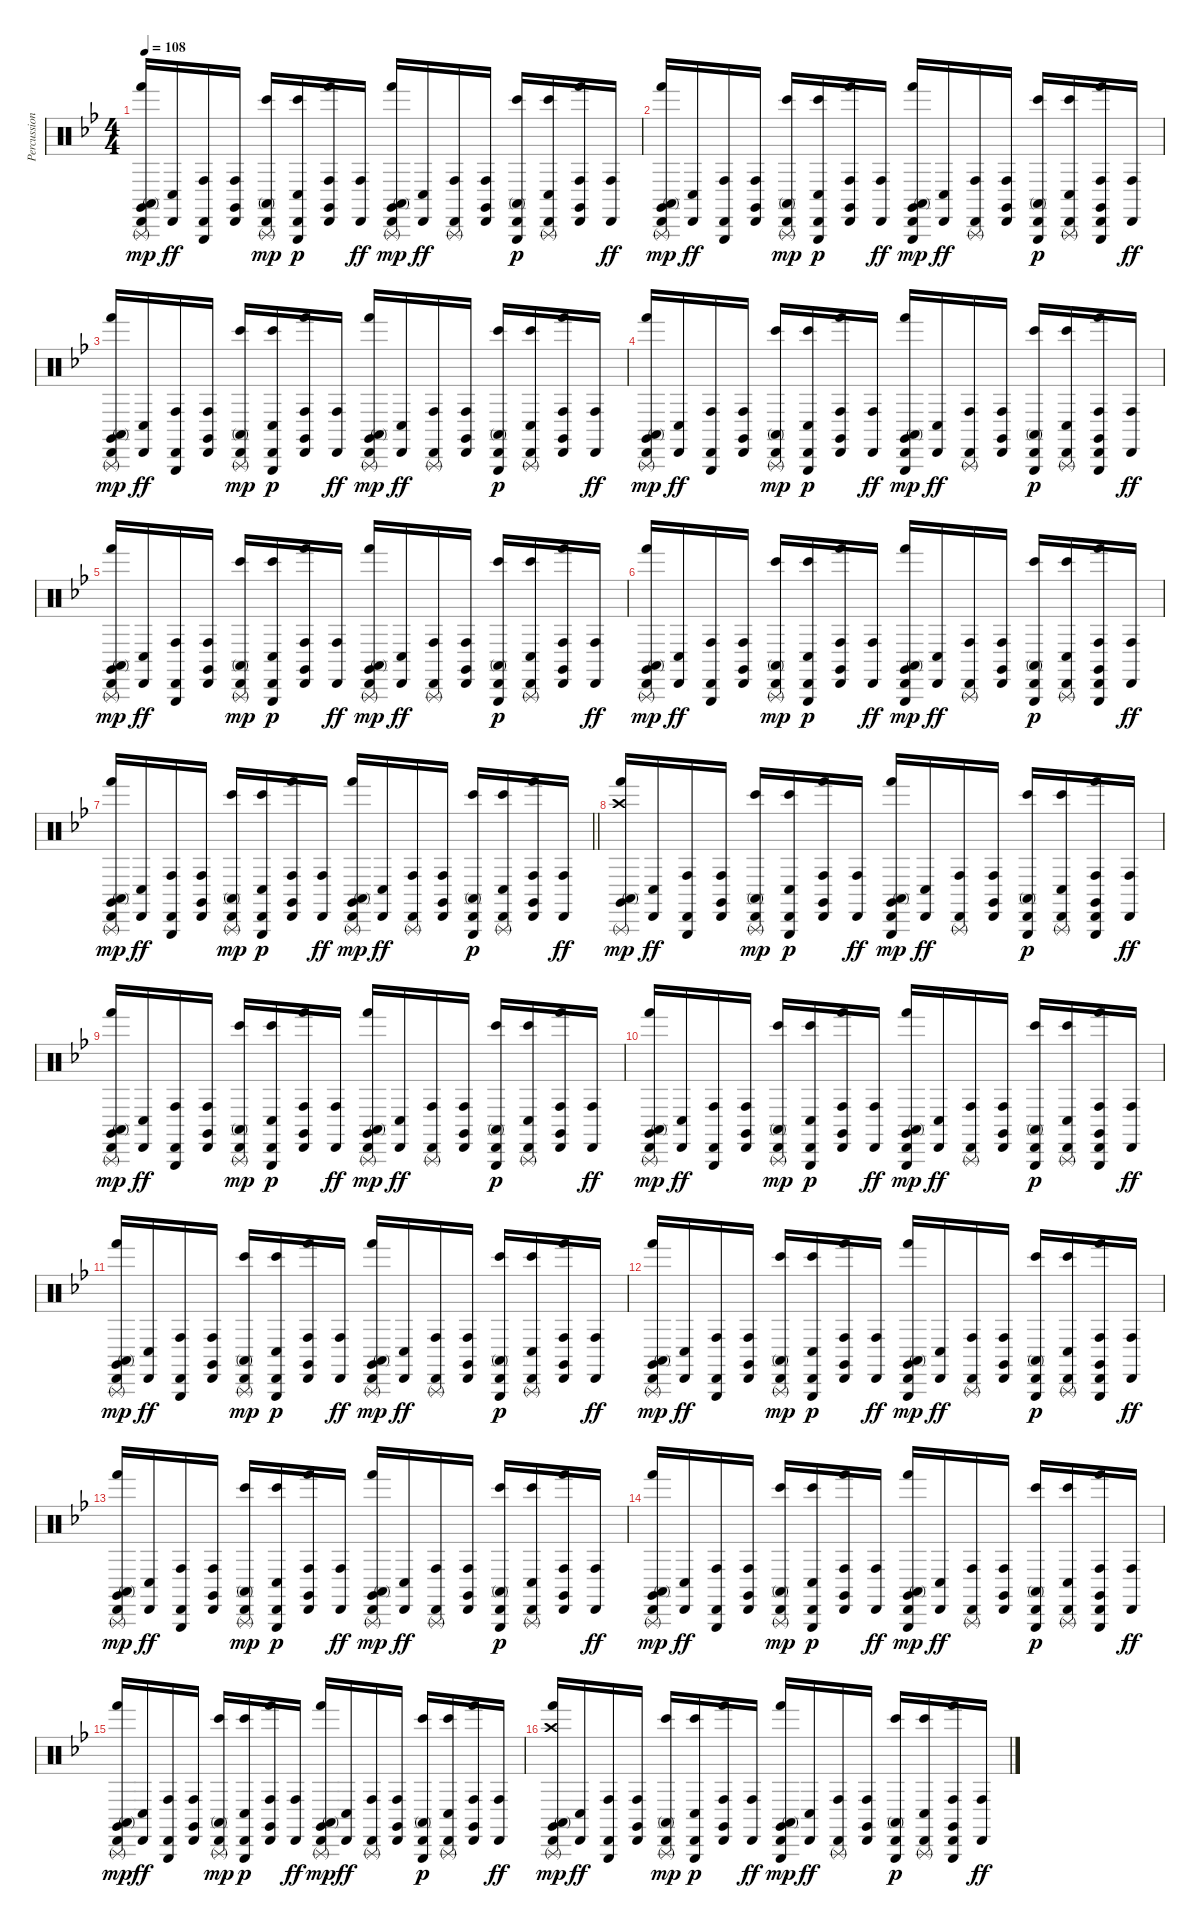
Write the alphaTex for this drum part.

\track ("Percussion" "Percussion") {instrument percussion}
\staff {score}
\articulation defaults
\ts (4 4)
\tempo 108
\clef neutral
\ks gminor
("Cabasa (hit)" "Triangle (rnute)" "Claves (hit)" "Conga high (mute)" "Hand (hit)").16{dy mp} ("Cabasa (hit)" "Conga low (hit)").16{dy ff} ("Cabasa (hit)" "Triangle (hit)" "Conga high (hit)").16 ("Cabasa (hit)" "Claves (hit)" "Conga high (hit)").16 ("Cabasa (hit)" "Triangle (rnute)" "Conga high (mute)" "Bongo High (hit)").16{dy mp} ("Cabasa (hit)" "Triangle (hit)" "Conga low (hit)" "Bongo High (hit)").16{dy p} ("Cabasa (hit)" "Claves (hit)" "Conga high (hit)" "Hand (hit)").16 ("Cabasa (hit)" "Conga high (hit)").16{dy ff} ("Cabasa (hit)" "Triangle (rnute)" "Claves (hit)" "Conga high (mute)" "Hand (hit)").16{dy mp} ("Cabasa (hit)" "Conga low (hit)").16{dy ff} ("Cabasa (hit)" "Triangle (rnute)" "Conga high (hit)").16 ("Cabasa (hit)" "Claves (hit)" "Conga high (hit)").16 ("Cabasa (hit)" "Triangle (hit)" "Conga high (mute)" "Bongo High (hit)").16{dy p} ("Cabasa (hit)" "Triangle (rnute)" "Conga low (hit)" "Bongo High (hit)").16 ("Cabasa (hit)" "Claves (hit)" "Conga high (hit)" "Hand (hit)").16 ("Cabasa (hit)" "Conga high (hit)").16{dy ff} |
("Cabasa (hit)" "Claves (hit)" "Triangle (rnute)" "Conga high (mute)" "Hand (hit)").16{dy mp} ("Cabasa (hit)" "Conga low (hit)").16{dy ff} ("Cabasa (hit)" "Triangle (hit)" "Conga high (hit)").16 ("Cabasa (hit)" "Claves (hit)" "Conga high (hit)").16 ("Cabasa (hit)" "Triangle (rnute)" "Conga high (mute)" "Bongo High (hit)").16{dy mp} ("Cabasa (hit)" "Triangle (hit)" "Conga low (hit)" "Bongo High (hit)").16{dy p} ("Cabasa (hit)" "Claves (hit)" "Conga high (hit)" "Hand (hit)").16 ("Cabasa (hit)" "Conga high (hit)").16{dy ff} ("Cabasa (hit)" "Claves (hit)" "Triangle (hit)" "Conga high (mute)" "Hand (hit)").16{dy mp} ("Cabasa (hit)" "Conga low (hit)").16{dy ff} ("Cabasa (hit)" "Triangle (rnute)" "Conga high (hit)").16 ("Cabasa (hit)" "Claves (hit)" "Conga high (hit)").16 ("Cabasa (hit)" "Triangle (hit)" "Conga high (mute)" "Bongo High (hit)").16{dy p} ("Cabasa (hit)" "Triangle (rnute)" "Conga low (hit)" "Bongo High (hit)").16 ("Cabasa (hit)" "Claves (hit)" "Triangle (hit)" "Conga high (hit)" "Hand (hit)").16 ("Cabasa (hit)" "Conga high (hit)").16{dy ff} |
("Cabasa (hit)" "Triangle (rnute)" "Claves (hit)" "Conga high (mute)" "Hand (hit)").16{dy mp} ("Cabasa (hit)" "Conga low (hit)").16{dy ff} ("Cabasa (hit)" "Triangle (hit)" "Conga high (hit)").16 ("Cabasa (hit)" "Claves (hit)" "Conga high (hit)").16 ("Cabasa (hit)" "Triangle (rnute)" "Conga high (mute)" "Bongo High (hit)").16{dy mp} ("Cabasa (hit)" "Triangle (hit)" "Conga low (hit)" "Bongo High (hit)").16{dy p} ("Cabasa (hit)" "Claves (hit)" "Conga high (hit)" "Hand (hit)").16 ("Cabasa (hit)" "Conga high (hit)").16{dy ff} ("Cabasa (hit)" "Triangle (rnute)" "Claves (hit)" "Conga high (mute)" "Hand (hit)").16{dy mp} ("Cabasa (hit)" "Conga low (hit)").16{dy ff} ("Cabasa (hit)" "Triangle (rnute)" "Conga high (hit)").16 ("Cabasa (hit)" "Claves (hit)" "Conga high (hit)").16 ("Cabasa (hit)" "Triangle (hit)" "Conga high (mute)" "Bongo High (hit)").16{dy p} ("Cabasa (hit)" "Triangle (rnute)" "Conga low (hit)" "Bongo High (hit)").16 ("Cabasa (hit)" "Claves (hit)" "Conga high (hit)" "Hand (hit)").16 ("Cabasa (hit)" "Conga high (hit)").16{dy ff} |
("Cabasa (hit)" "Claves (hit)" "Triangle (rnute)" "Conga high (mute)" "Hand (hit)").16{dy mp} ("Cabasa (hit)" "Conga low (hit)").16{dy ff} ("Cabasa (hit)" "Triangle (hit)" "Conga high (hit)").16 ("Cabasa (hit)" "Claves (hit)" "Conga high (hit)").16 ("Cabasa (hit)" "Triangle (rnute)" "Conga high (mute)" "Bongo High (hit)").16{dy mp} ("Cabasa (hit)" "Triangle (hit)" "Conga low (hit)" "Bongo High (hit)").16{dy p} ("Cabasa (hit)" "Claves (hit)" "Conga high (hit)" "Hand (hit)").16 ("Cabasa (hit)" "Conga high (hit)").16{dy ff} ("Cabasa (hit)" "Claves (hit)" "Triangle (hit)" "Conga high (mute)" "Hand (hit)").16{dy mp} ("Cabasa (hit)" "Conga low (hit)").16{dy ff} ("Cabasa (hit)" "Triangle (rnute)" "Conga high (hit)").16 ("Cabasa (hit)" "Claves (hit)" "Conga high (hit)").16 ("Cabasa (hit)" "Triangle (hit)" "Conga high (mute)" "Bongo High (hit)").16{dy p} ("Cabasa (hit)" "Triangle (rnute)" "Conga low (hit)" "Bongo High (hit)").16 ("Cabasa (hit)" "Claves (hit)" "Triangle (hit)" "Conga high (hit)" "Hand (hit)").16 ("Cabasa (hit)" "Conga high (hit)").16{dy ff} |
("Cabasa (hit)" "Triangle (rnute)" "Claves (hit)" "Conga high (mute)" "Hand (hit)").16{dy mp} ("Cabasa (hit)" "Conga low (hit)").16{dy ff} ("Cabasa (hit)" "Triangle (hit)" "Conga high (hit)").16 ("Cabasa (hit)" "Claves (hit)" "Conga high (hit)").16 ("Cabasa (hit)" "Triangle (rnute)" "Conga high (mute)" "Bongo High (hit)").16{dy mp} ("Cabasa (hit)" "Triangle (hit)" "Conga low (hit)" "Bongo High (hit)").16{dy p} ("Cabasa (hit)" "Claves (hit)" "Conga high (hit)" "Hand (hit)").16 ("Cabasa (hit)" "Conga high (hit)").16{dy ff} ("Cabasa (hit)" "Triangle (rnute)" "Claves (hit)" "Conga high (mute)" "Hand (hit)").16{dy mp} ("Cabasa (hit)" "Conga low (hit)").16{dy ff} ("Cabasa (hit)" "Triangle (rnute)" "Conga high (hit)").16 ("Cabasa (hit)" "Claves (hit)" "Conga high (hit)").16 ("Cabasa (hit)" "Triangle (hit)" "Conga high (mute)" "Bongo High (hit)").16{dy p} ("Cabasa (hit)" "Triangle (rnute)" "Conga low (hit)" "Bongo High (hit)").16 ("Cabasa (hit)" "Claves (hit)" "Conga high (hit)" "Hand (hit)").16 ("Cabasa (hit)" "Conga high (hit)").16{dy ff} |
("Cabasa (hit)" "Claves (hit)" "Triangle (rnute)" "Conga high (mute)" "Hand (hit)").16{dy mp} ("Cabasa (hit)" "Conga low (hit)").16{dy ff} ("Cabasa (hit)" "Triangle (hit)" "Conga high (hit)").16 ("Cabasa (hit)" "Claves (hit)" "Conga high (hit)").16 ("Cabasa (hit)" "Triangle (rnute)" "Conga high (mute)" "Bongo High (hit)").16{dy mp} ("Cabasa (hit)" "Triangle (hit)" "Conga low (hit)" "Bongo High (hit)").16{dy p} ("Cabasa (hit)" "Claves (hit)" "Conga high (hit)" "Hand (hit)").16 ("Cabasa (hit)" "Conga high (hit)").16{dy ff} ("Cabasa (hit)" "Claves (hit)" "Triangle (hit)" "Conga high (mute)" "Hand (hit)").16{dy mp} ("Cabasa (hit)" "Conga low (hit)").16{dy ff} ("Cabasa (hit)" "Triangle (rnute)" "Conga high (hit)").16 ("Cabasa (hit)" "Claves (hit)" "Conga high (hit)").16 ("Cabasa (hit)" "Triangle (hit)" "Conga high (mute)" "Bongo High (hit)").16{dy p} ("Cabasa (hit)" "Triangle (rnute)" "Conga low (hit)" "Bongo High (hit)").16 ("Cabasa (hit)" "Claves (hit)" "Triangle (hit)" "Conga high (hit)" "Hand (hit)").16 ("Cabasa (hit)" "Conga high (hit)").16{dy ff} |
\barLineRight lightlight
("Cabasa (hit)" "Triangle (rnute)" "Claves (hit)" "Conga high (mute)" "Hand (hit)").16{dy mp} ("Cabasa (hit)" "Conga low (hit)").16{dy ff} ("Cabasa (hit)" "Triangle (hit)" "Conga high (hit)").16 ("Cabasa (hit)" "Claves (hit)" "Conga high (hit)").16 ("Cabasa (hit)" "Triangle (rnute)" "Conga high (mute)" "Bongo High (hit)").16{dy mp} ("Cabasa (hit)" "Triangle (hit)" "Conga low (hit)" "Bongo High (hit)").16{dy p} ("Cabasa (hit)" "Claves (hit)" "Conga high (hit)" "Hand (hit)").16 ("Cabasa (hit)" "Conga high (hit)").16{dy ff} ("Cabasa (hit)" "Triangle (rnute)" "Claves (hit)" "Conga high (mute)" "Hand (hit)").16{dy mp} ("Cabasa (hit)" "Conga low (hit)").16{dy ff} ("Cabasa (hit)" "Triangle (rnute)" "Conga high (hit)").16 ("Cabasa (hit)" "Claves (hit)" "Conga high (hit)").16 ("Cabasa (hit)" "Triangle (hit)" "Conga high (mute)" "Bongo High (hit)").16{dy p} ("Cabasa (hit)" "Triangle (rnute)" "Conga low (hit)" "Bongo High (hit)").16 ("Cabasa (hit)" "Claves (hit)" "Conga high (hit)" "Hand (hit)").16 ("Cabasa (hit)" "Conga high (hit)").16{dy ff} |
\section ("" "")
("Crash high (hit)" "Claves (hit)" "Triangle (rnute)" "Conga high (mute)" "Hand (hit)").16{dy mp} ("Cabasa (hit)" "Conga low (hit)").16{dy ff} ("Cabasa (hit)" "Triangle (hit)" "Conga high (hit)").16 ("Cabasa (hit)" "Claves (hit)" "Conga high (hit)").16 ("Cabasa (hit)" "Triangle (rnute)" "Conga high (mute)" "Bongo High (hit)").16{dy mp} ("Cabasa (hit)" "Triangle (hit)" "Conga low (hit)" "Bongo High (hit)").16{dy p} ("Cabasa (hit)" "Claves (hit)" "Conga high (hit)" "Hand (hit)").16 ("Cabasa (hit)" "Conga high (hit)").16{dy ff} ("Cabasa (hit)" "Claves (hit)" "Triangle (hit)" "Conga high (mute)" "Hand (hit)").16{dy mp} ("Cabasa (hit)" "Conga low (hit)").16{dy ff} ("Cabasa (hit)" "Triangle (rnute)" "Conga high (hit)").16 ("Cabasa (hit)" "Claves (hit)" "Conga high (hit)").16 ("Cabasa (hit)" "Triangle (hit)" "Conga high (mute)" "Bongo High (hit)").16{dy p} ("Cabasa (hit)" "Triangle (rnute)" "Conga low (hit)" "Bongo High (hit)").16 ("Cabasa (hit)" "Claves (hit)" "Triangle (hit)" "Conga high (hit)" "Hand (hit)").16 ("Cabasa (hit)" "Conga high (hit)").16{dy ff} |
("Cabasa (hit)" "Triangle (rnute)" "Claves (hit)" "Conga high (mute)" "Hand (hit)").16{dy mp} ("Cabasa (hit)" "Conga low (hit)").16{dy ff} ("Cabasa (hit)" "Triangle (hit)" "Conga high (hit)").16 ("Cabasa (hit)" "Claves (hit)" "Conga high (hit)").16 ("Cabasa (hit)" "Triangle (rnute)" "Conga high (mute)" "Bongo High (hit)").16{dy mp} ("Cabasa (hit)" "Triangle (hit)" "Conga low (hit)" "Bongo High (hit)").16{dy p} ("Cabasa (hit)" "Claves (hit)" "Conga high (hit)" "Hand (hit)").16 ("Cabasa (hit)" "Conga high (hit)").16{dy ff} ("Cabasa (hit)" "Triangle (rnute)" "Claves (hit)" "Conga high (mute)" "Hand (hit)").16{dy mp} ("Cabasa (hit)" "Conga low (hit)").16{dy ff} ("Cabasa (hit)" "Triangle (rnute)" "Conga high (hit)").16 ("Cabasa (hit)" "Claves (hit)" "Conga high (hit)").16 ("Cabasa (hit)" "Triangle (hit)" "Conga high (mute)" "Bongo High (hit)").16{dy p} ("Cabasa (hit)" "Triangle (rnute)" "Conga low (hit)" "Bongo High (hit)").16 ("Cabasa (hit)" "Claves (hit)" "Conga high (hit)" "Hand (hit)").16 ("Cabasa (hit)" "Conga high (hit)").16{dy ff} |
("Cabasa (hit)" "Claves (hit)" "Triangle (rnute)" "Conga high (mute)" "Hand (hit)").16{dy mp} ("Cabasa (hit)" "Conga low (hit)").16{dy ff} ("Cabasa (hit)" "Triangle (hit)" "Conga high (hit)").16 ("Cabasa (hit)" "Claves (hit)" "Conga high (hit)").16 ("Cabasa (hit)" "Triangle (rnute)" "Conga high (mute)" "Bongo High (hit)").16{dy mp} ("Cabasa (hit)" "Triangle (hit)" "Conga low (hit)" "Bongo High (hit)").16{dy p} ("Cabasa (hit)" "Claves (hit)" "Conga high (hit)" "Hand (hit)").16 ("Cabasa (hit)" "Conga high (hit)").16{dy ff} ("Cabasa (hit)" "Claves (hit)" "Triangle (hit)" "Conga high (mute)" "Hand (hit)").16{dy mp} ("Cabasa (hit)" "Conga low (hit)").16{dy ff} ("Cabasa (hit)" "Triangle (rnute)" "Conga high (hit)").16 ("Cabasa (hit)" "Claves (hit)" "Conga high (hit)").16 ("Cabasa (hit)" "Triangle (hit)" "Conga high (mute)" "Bongo High (hit)").16{dy p} ("Cabasa (hit)" "Triangle (rnute)" "Conga low (hit)" "Bongo High (hit)").16 ("Cabasa (hit)" "Claves (hit)" "Triangle (hit)" "Conga high (hit)" "Hand (hit)").16 ("Cabasa (hit)" "Conga high (hit)").16{dy ff} |
("Cabasa (hit)" "Triangle (rnute)" "Claves (hit)" "Conga high (mute)" "Hand (hit)").16{dy mp} ("Cabasa (hit)" "Conga low (hit)").16{dy ff} ("Cabasa (hit)" "Triangle (hit)" "Conga high (hit)").16 ("Cabasa (hit)" "Claves (hit)" "Conga high (hit)").16 ("Cabasa (hit)" "Triangle (rnute)" "Conga high (mute)" "Bongo High (hit)").16{dy mp} ("Cabasa (hit)" "Triangle (hit)" "Conga low (hit)" "Bongo High (hit)").16{dy p} ("Cabasa (hit)" "Claves (hit)" "Conga high (hit)" "Hand (hit)").16 ("Cabasa (hit)" "Conga high (hit)").16{dy ff} ("Cabasa (hit)" "Triangle (rnute)" "Claves (hit)" "Conga high (mute)" "Hand (hit)").16{dy mp} ("Cabasa (hit)" "Conga low (hit)").16{dy ff} ("Cabasa (hit)" "Triangle (rnute)" "Conga high (hit)").16 ("Cabasa (hit)" "Claves (hit)" "Conga high (hit)").16 ("Cabasa (hit)" "Triangle (hit)" "Conga high (mute)" "Bongo High (hit)").16{dy p} ("Cabasa (hit)" "Triangle (rnute)" "Conga low (hit)" "Bongo High (hit)").16 ("Cabasa (hit)" "Claves (hit)" "Conga high (hit)" "Hand (hit)").16 ("Cabasa (hit)" "Conga high (hit)").16{dy ff} |
("Cabasa (hit)" "Claves (hit)" "Triangle (rnute)" "Conga high (mute)" "Hand (hit)").16{dy mp} ("Cabasa (hit)" "Conga low (hit)").16{dy ff} ("Cabasa (hit)" "Triangle (hit)" "Conga high (hit)").16 ("Cabasa (hit)" "Claves (hit)" "Conga high (hit)").16 ("Cabasa (hit)" "Triangle (rnute)" "Conga high (mute)" "Bongo High (hit)").16{dy mp} ("Cabasa (hit)" "Triangle (hit)" "Conga low (hit)" "Bongo High (hit)").16{dy p} ("Cabasa (hit)" "Claves (hit)" "Conga high (hit)" "Hand (hit)").16 ("Cabasa (hit)" "Conga high (hit)").16{dy ff} ("Cabasa (hit)" "Claves (hit)" "Triangle (hit)" "Conga high (mute)" "Hand (hit)").16{dy mp} ("Cabasa (hit)" "Conga low (hit)").16{dy ff} ("Cabasa (hit)" "Triangle (rnute)" "Conga high (hit)").16 ("Cabasa (hit)" "Claves (hit)" "Conga high (hit)").16 ("Cabasa (hit)" "Triangle (hit)" "Conga high (mute)" "Bongo High (hit)").16{dy p} ("Cabasa (hit)" "Triangle (rnute)" "Conga low (hit)" "Bongo High (hit)").16 ("Cabasa (hit)" "Claves (hit)" "Triangle (hit)" "Conga high (hit)" "Hand (hit)").16 ("Cabasa (hit)" "Conga high (hit)").16{dy ff} |
("Cabasa (hit)" "Triangle (rnute)" "Claves (hit)" "Conga high (mute)" "Hand (hit)").16{dy mp} ("Cabasa (hit)" "Conga low (hit)").16{dy ff} ("Cabasa (hit)" "Triangle (hit)" "Conga high (hit)").16 ("Cabasa (hit)" "Claves (hit)" "Conga high (hit)").16 ("Cabasa (hit)" "Triangle (rnute)" "Conga high (mute)" "Bongo High (hit)").16{dy mp} ("Cabasa (hit)" "Triangle (hit)" "Conga low (hit)" "Bongo High (hit)").16{dy p} ("Cabasa (hit)" "Claves (hit)" "Conga high (hit)" "Hand (hit)").16 ("Cabasa (hit)" "Conga high (hit)").16{dy ff} ("Cabasa (hit)" "Triangle (rnute)" "Claves (hit)" "Conga high (mute)" "Hand (hit)").16{dy mp} ("Cabasa (hit)" "Conga low (hit)").16{dy ff} ("Cabasa (hit)" "Triangle (rnute)" "Conga high (hit)").16 ("Cabasa (hit)" "Claves (hit)" "Conga high (hit)").16 ("Cabasa (hit)" "Triangle (hit)" "Conga high (mute)" "Bongo High (hit)").16{dy p} ("Cabasa (hit)" "Triangle (rnute)" "Conga low (hit)" "Bongo High (hit)").16 ("Cabasa (hit)" "Claves (hit)" "Conga high (hit)" "Hand (hit)").16 ("Cabasa (hit)" "Conga high (hit)").16{dy ff} |
("Cabasa (hit)" "Claves (hit)" "Triangle (rnute)" "Conga high (mute)" "Hand (hit)").16{dy mp} ("Cabasa (hit)" "Conga low (hit)").16{dy ff} ("Cabasa (hit)" "Triangle (hit)" "Conga high (hit)").16 ("Cabasa (hit)" "Claves (hit)" "Conga high (hit)").16 ("Cabasa (hit)" "Triangle (rnute)" "Conga high (mute)" "Bongo High (hit)").16{dy mp} ("Cabasa (hit)" "Triangle (hit)" "Conga low (hit)" "Bongo High (hit)").16{dy p} ("Cabasa (hit)" "Claves (hit)" "Conga high (hit)" "Hand (hit)").16 ("Cabasa (hit)" "Conga high (hit)").16{dy ff} ("Cabasa (hit)" "Claves (hit)" "Triangle (hit)" "Conga high (mute)" "Hand (hit)").16{dy mp} ("Cabasa (hit)" "Conga low (hit)").16{dy ff} ("Cabasa (hit)" "Triangle (rnute)" "Conga high (hit)").16 ("Cabasa (hit)" "Claves (hit)" "Conga high (hit)").16 ("Cabasa (hit)" "Triangle (hit)" "Conga high (mute)" "Bongo High (hit)").16{dy p} ("Cabasa (hit)" "Triangle (rnute)" "Conga low (hit)" "Bongo High (hit)").16 ("Cabasa (hit)" "Claves (hit)" "Triangle (hit)" "Conga high (hit)" "Hand (hit)").16 ("Cabasa (hit)" "Conga high (hit)").16{dy ff} |
("Cabasa (hit)" "Triangle (rnute)" "Claves (hit)" "Conga high (mute)" "Hand (hit)").16{dy mp} ("Cabasa (hit)" "Conga low (hit)").16{dy ff} ("Cabasa (hit)" "Triangle (hit)" "Conga high (hit)").16 ("Cabasa (hit)" "Claves (hit)" "Conga high (hit)").16 ("Cabasa (hit)" "Triangle (rnute)" "Conga high (mute)" "Bongo High (hit)").16{dy mp} ("Cabasa (hit)" "Triangle (hit)" "Conga low (hit)" "Bongo High (hit)").16{dy p} ("Cabasa (hit)" "Claves (hit)" "Conga high (hit)" "Hand (hit)").16 ("Cabasa (hit)" "Conga high (hit)").16{dy ff} ("Cabasa (hit)" "Triangle (rnute)" "Claves (hit)" "Conga high (mute)" "Hand (hit)").16{dy mp} ("Cabasa (hit)" "Conga low (hit)").16{dy ff} ("Cabasa (hit)" "Triangle (rnute)" "Conga high (hit)").16 ("Cabasa (hit)" "Claves (hit)" "Conga high (hit)").16 ("Cabasa (hit)" "Triangle (hit)" "Conga high (mute)" "Bongo High (hit)").16{dy p} ("Cabasa (hit)" "Triangle (rnute)" "Conga low (hit)" "Bongo High (hit)").16 ("Cabasa (hit)" "Claves (hit)" "Conga high (hit)" "Hand (hit)").16 ("Cabasa (hit)" "Conga high (hit)").16{dy ff} |
("Crash high (hit)" "Cabasa (hit)" "Claves (hit)" "Triangle (rnute)" "Conga high (mute)" "Hand (hit)").16{dy mp} ("Cabasa (hit)" "Conga low (hit)").16{dy ff} ("Cabasa (hit)" "Triangle (hit)" "Conga high (hit)").16 ("Cabasa (hit)" "Claves (hit)" "Conga high (hit)").16 ("Cabasa (hit)" "Triangle (rnute)" "Conga high (mute)" "Bongo High (hit)").16{dy mp} ("Cabasa (hit)" "Triangle (hit)" "Conga low (hit)" "Bongo High (hit)").16{dy p} ("Cabasa (hit)" "Claves (hit)" "Conga high (hit)" "Hand (hit)").16 ("Cabasa (hit)" "Conga high (hit)").16{dy ff} ("Cabasa (hit)" "Claves (hit)" "Triangle (hit)" "Conga high (mute)" "Hand (hit)").16{dy mp} ("Cabasa (hit)" "Conga low (hit)").16{dy ff} ("Cabasa (hit)" "Triangle (rnute)" "Conga high (hit)").16 ("Cabasa (hit)" "Claves (hit)" "Conga high (hit)").16 ("Cabasa (hit)" "Triangle (hit)" "Conga high (mute)" "Bongo High (hit)").16{dy p} ("Cabasa (hit)" "Triangle (rnute)" "Conga low (hit)" "Bongo High (hit)").16 ("Cabasa (hit)" "Claves (hit)" "Triangle (hit)" "Conga high (hit)" "Hand (hit)").16 ("Cabasa (hit)" "Conga high (hit)").16{dy ff}
